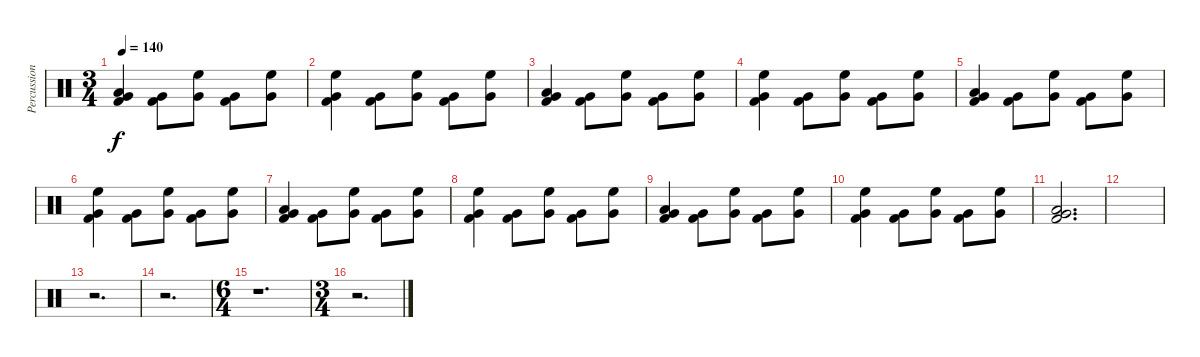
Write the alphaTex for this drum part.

\track ("Percussions" "Percussion") {instrument percussion}
\staff {score}
\articulation defaults
\ts (3 4)
\tempo 140
\clef neutral
\ks c
("Low Floor Tom (hit)" "Very Low Tom (hit)" "Kick (hit) 2").4{dy f} ("Very Low Tom (hit)" "Kick (hit) 2").8 ("High Floor Tom (hit)" "Very Low Tom (hit)").8 ("Very Low Tom (hit)" "Kick (hit) 2").8 ("High Floor Tom (hit)" "Very Low Tom (hit)").8 |
("High Floor Tom (hit)" "Very Low Tom (hit)" "Kick (hit) 2").4 ("Very Low Tom (hit)" "Kick (hit) 2").8 ("High Floor Tom (hit)" "Very Low Tom (hit)").8 ("Very Low Tom (hit)" "Kick (hit) 2").8 ("High Floor Tom (hit)" "Very Low Tom (hit)").8 |
("Low Floor Tom (hit)" "Very Low Tom (hit)" "Kick (hit) 2").4 ("Very Low Tom (hit)" "Kick (hit) 2").8 ("High Floor Tom (hit)" "Very Low Tom (hit)").8 ("Very Low Tom (hit)" "Kick (hit) 2").8 ("High Floor Tom (hit)" "Very Low Tom (hit)").8 |
("High Floor Tom (hit)" "Very Low Tom (hit)" "Kick (hit) 2").4 ("Very Low Tom (hit)" "Kick (hit) 2").8 ("High Floor Tom (hit)" "Very Low Tom (hit)").8 ("Very Low Tom (hit)" "Kick (hit) 2").8 ("High Floor Tom (hit)" "Very Low Tom (hit)").8 |
("Low Floor Tom (hit)" "Very Low Tom (hit)" "Kick (hit) 2").4 ("Very Low Tom (hit)" "Kick (hit) 2").8 ("High Floor Tom (hit)" "Very Low Tom (hit)").8 ("Very Low Tom (hit)" "Kick (hit) 2").8 ("High Floor Tom (hit)" "Very Low Tom (hit)").8 |
("High Floor Tom (hit)" "Very Low Tom (hit)" "Kick (hit) 2").4 ("Very Low Tom (hit)" "Kick (hit) 2").8 ("High Floor Tom (hit)" "Very Low Tom (hit)").8 ("Very Low Tom (hit)" "Kick (hit) 2").8 ("High Floor Tom (hit)" "Very Low Tom (hit)").8 |
("Low Floor Tom (hit)" "Very Low Tom (hit)" "Kick (hit) 2").4 ("Very Low Tom (hit)" "Kick (hit) 2").8 ("High Floor Tom (hit)" "Very Low Tom (hit)").8 ("Very Low Tom (hit)" "Kick (hit) 2").8 ("High Floor Tom (hit)" "Very Low Tom (hit)").8 |
("High Floor Tom (hit)" "Very Low Tom (hit)" "Kick (hit) 2").4 ("Very Low Tom (hit)" "Kick (hit) 2").8 ("High Floor Tom (hit)" "Very Low Tom (hit)").8 ("Very Low Tom (hit)" "Kick (hit) 2").8 ("High Floor Tom (hit)" "Very Low Tom (hit)").8 |
("Low Floor Tom (hit)" "Very Low Tom (hit)" "Kick (hit) 2").4 ("Very Low Tom (hit)" "Kick (hit) 2").8 ("High Floor Tom (hit)" "Very Low Tom (hit)").8 ("Very Low Tom (hit)" "Kick (hit) 2").8 ("High Floor Tom (hit)" "Very Low Tom (hit)").8 |
("High Floor Tom (hit)" "Very Low Tom (hit)" "Kick (hit) 2").4 ("Very Low Tom (hit)" "Kick (hit) 2").8 ("High Floor Tom (hit)" "Very Low Tom (hit)").8 ("Very Low Tom (hit)" "Kick (hit) 2").8 ("High Floor Tom (hit)" "Very Low Tom (hit)").8 |
("Low Floor Tom (hit)" "Very Low Tom (hit)" "Kick (hit) 2").2{d} |
|
r.2{d} |
r.2{d} |
\ts (6 4)
r.1{d} |
\ts (3 4)
r.2{d}
